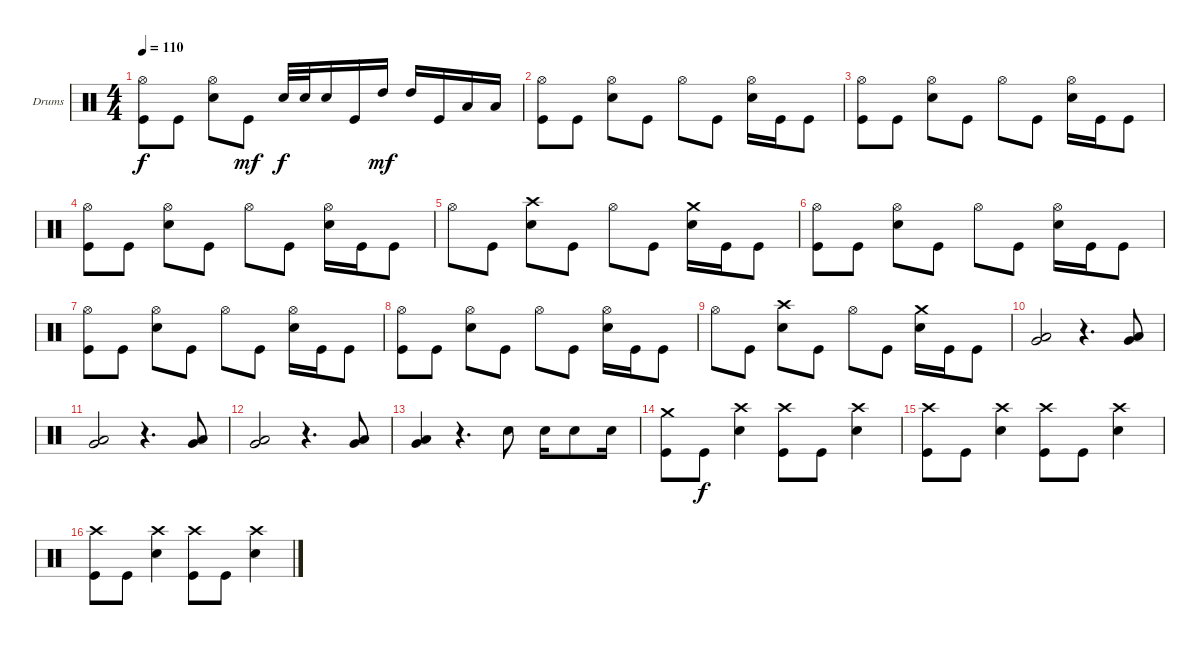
\bracketExtendMode groupsimilarinstruments
\firstSystemTrackNameOrientation horizontal
\otherSystemsTrackNameOrientation horizontal
\track ("Drumkit" "Drums") {instrument percussion}
\staff {score}
\articulation defaults
\ts (4 4)
\tempo 110
\clef neutral
\ks c
("Hi-Hat (open)" "Kick (hit)").8{dy f} "Kick (hit)".8 ("Hi-Hat (open)" "Snare (hit) 2").8 "Kick (hit)".8{dy mf} "Snare (hit) 2".32{dy f} "Snare (hit) 2".32 "Snare (hit) 2".16 "Kick (hit)".16 "High Tom (hit)".16{dy mf} "High Tom (hit)".16 "Kick (hit)".16 "Low Tom (hit)".16 "Low Tom (hit)".16 |
("Kick (hit)" "Hi-Hat (open)").8 "Kick (hit)".8 ("Snare (hit) 2" "Hi-Hat (open)").8 "Kick (hit)".8 "Hi-Hat (open)".8 "Kick (hit)".8 ("Snare (hit) 2" "Hi-Hat (open)").16 "Kick (hit)".16 "Kick (hit)".8 |
("Kick (hit)" "Hi-Hat (open)").8 "Kick (hit)".8 ("Snare (hit) 2" "Hi-Hat (open)").8 "Kick (hit)".8 "Hi-Hat (open)".8 "Kick (hit)".8 ("Snare (hit) 2" "Hi-Hat (open)").16 "Kick (hit)".16 "Kick (hit)".8 |
("Kick (hit)" "Hi-Hat (open)").8 "Kick (hit)".8 ("Snare (hit) 2" "Hi-Hat (open)").8 "Kick (hit)".8 "Hi-Hat (open)".8 "Kick (hit)".8 ("Snare (hit) 2" "Hi-Hat (open)").16 "Kick (hit)".16 "Kick (hit)".8 |
"Hi-Hat (open)".8 "Kick (hit)".8 ("Snare (hit) 2" "Crash high (hit)").8 "Kick (hit)".8 "Hi-Hat (open)".8 "Kick (hit)".8 ("Snare (hit) 2" "Crash medium (hit)").16 "Kick (hit)".16 "Kick (hit)".8 |
("Kick (hit)" "Hi-Hat (open)").8 "Kick (hit)".8 ("Snare (hit) 2" "Hi-Hat (open)").8 "Kick (hit)".8 "Hi-Hat (open)".8 "Kick (hit)".8 ("Snare (hit) 2" "Hi-Hat (open)").16 "Kick (hit)".16 "Kick (hit)".8 |
("Kick (hit)" "Hi-Hat (open)").8 "Kick (hit)".8 ("Snare (hit) 2" "Hi-Hat (open)").8 "Kick (hit)".8 "Hi-Hat (open)".8 "Kick (hit)".8 ("Snare (hit) 2" "Hi-Hat (open)").16 "Kick (hit)".16 "Kick (hit)".8 |
("Kick (hit)" "Hi-Hat (open)").8 "Kick (hit)".8 ("Snare (hit) 2" "Hi-Hat (open)").8 "Kick (hit)".8 "Hi-Hat (open)".8 "Kick (hit)".8 ("Snare (hit) 2" "Hi-Hat (open)").16 "Kick (hit)".16 "Kick (hit)".8 |
"Hi-Hat (open)".8 "Kick (hit)".8 ("Snare (hit) 2" "Crash high (hit)").8 "Kick (hit)".8 "Hi-Hat (open)".8 "Kick (hit)".8 ("Snare (hit) 2" "Crash medium (hit)").16 "Kick (hit)".16 "Kick (hit)".8 |
("Low Tom (hit)" "Very Low Tom (hit)").2 r.4{d} ("Low Tom (hit)" "Very Low Tom (hit)").8 |
("Low Tom (hit)" "Very Low Tom (hit)").2 r.4{d} ("Low Tom (hit)" "Very Low Tom (hit)").8 |
("Low Tom (hit)" "Very Low Tom (hit)").2 r.4{d} ("Low Tom (hit)" "Very Low Tom (hit)").8 |
("Low Tom (hit)" "Very Low Tom (hit)").4 r.4{d} "Snare (hit) 2".8 "Snare (hit) 2".16 "Snare (hit) 2".8 "Snare (hit) 2".16 |
("Crash medium (hit)" "Kick (hit)").8 "Kick (hit)".8{dy f} ("Crash high (hit)" "Snare (hit) 2").4 ("Crash high (hit)" "Kick (hit)").8 "Kick (hit)".8 ("Crash high (hit)" "Snare (hit) 2").4 |
("Crash high (hit)" "Kick (hit)").8 "Kick (hit)".8 ("Crash high (hit)" "Snare (hit) 2").4 ("Crash high (hit)" "Kick (hit)").8 "Kick (hit)".8 ("Crash high (hit)" "Snare (hit) 2").4 |
("Crash high (hit)" "Kick (hit)").8 "Kick (hit)".8 ("Crash high (hit)" "Snare (hit) 2").4 ("Crash high (hit)" "Kick (hit)").8 "Kick (hit)".8 ("Crash high (hit)" "Snare (hit) 2").4
